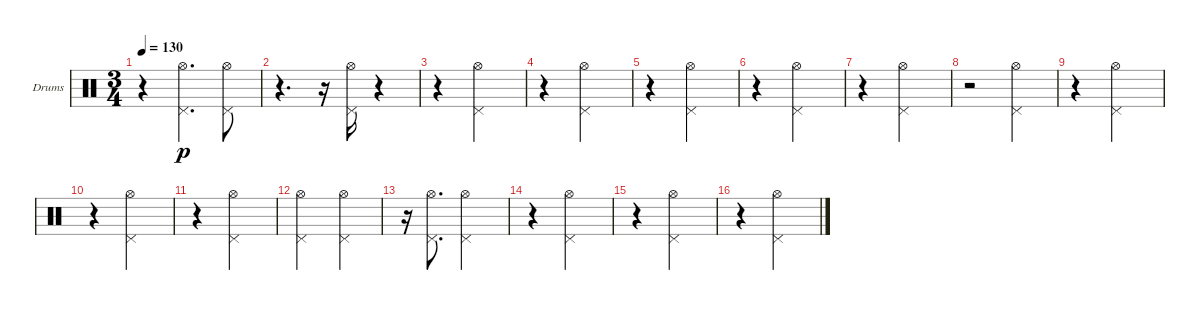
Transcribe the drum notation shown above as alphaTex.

\bracketExtendMode groupsimilarinstruments
\firstSystemTrackNameOrientation horizontal
\otherSystemsTrackNameOrientation horizontal
\track ("HH" "Drums") {instrument percussion}
\staff {score}
\articulation defaults
\ts (3 4)
\tempo 130
\clef neutral
\ks c
r.4{dy p} ("Pedal Hi-Hat (hit)" "Hi-Hat (open)").4{d} ("Pedal Hi-Hat (hit)" "Hi-Hat (open)").8 |
r.4{d} r.16 ("Pedal Hi-Hat (hit)" "Hi-Hat (open)").16 r.4 |
r.4 ("Pedal Hi-Hat (hit)" "Hi-Hat (open)").2 |
r.4 ("Pedal Hi-Hat (hit)" "Hi-Hat (open)").2 |
r.4 ("Pedal Hi-Hat (hit)" "Hi-Hat (open)").2 |
r.4 ("Pedal Hi-Hat (hit)" "Hi-Hat (open)").2 |
r.4 ("Pedal Hi-Hat (hit)" "Hi-Hat (open)").2 |
r.2 ("Pedal Hi-Hat (hit)" "Hi-Hat (open)").4 |
r.4 ("Pedal Hi-Hat (hit)" "Hi-Hat (open)").2 |
r.4 ("Pedal Hi-Hat (hit)" "Hi-Hat (open)").2 |
r.4 ("Pedal Hi-Hat (hit)" "Hi-Hat (open)").2 |
("Pedal Hi-Hat (hit)" "Hi-Hat (open)").2 ("Pedal Hi-Hat (hit)" "Hi-Hat (open)").4 |
r.16 ("Pedal Hi-Hat (hit)" "Hi-Hat (open)").8{d} ("Pedal Hi-Hat (hit)" "Hi-Hat (open)").2 |
r.4 ("Pedal Hi-Hat (hit)" "Hi-Hat (open)").2 |
r.4 ("Pedal Hi-Hat (hit)" "Hi-Hat (open)").2 |
r.4 ("Pedal Hi-Hat (hit)" "Hi-Hat (open)").2
